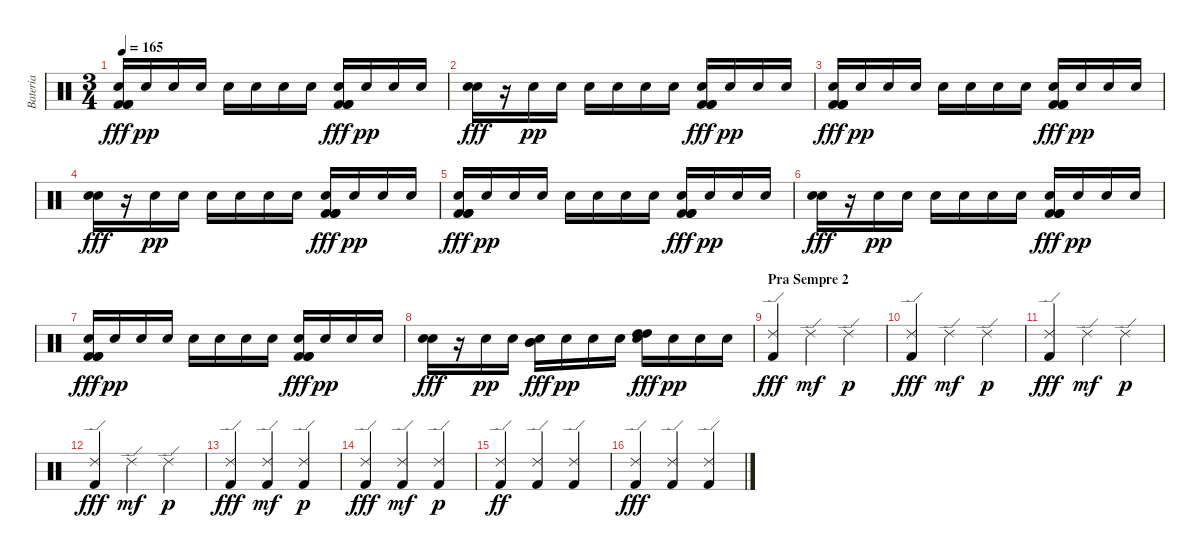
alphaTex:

\track ("Bateria" "Bateria") {instrument percussion}
\staff {score}
\articulation defaults
\ts (3 4)
\tempo 165
\clef neutral
\ks c
("Electric Snare (hit)" "Kick (hit) 2" "Kick (hit) 2" "Kick (hit) 2").16{dy fff} "Electric Snare (hit)".16{dy pp} "Electric Snare (hit)".16 "Electric Snare (hit)".16 "Electric Snare (hit)".16 "Electric Snare (hit)".16 "Electric Snare (hit)".16 "Electric Snare (hit)".16 ("Electric Snare (hit)" "Kick (hit) 2" "Kick (hit) 2" "Kick (hit) 2").16{dy fff} "Electric Snare (hit)".16{dy pp} "Electric Snare (hit)".16 "Electric Snare (hit)".16 |
("Electric Snare (hit)" "Electric Snare (hit)").16{dy fff} r.16 "Electric Snare (hit)".16{dy pp} "Electric Snare (hit)".16 "Electric Snare (hit)".16 "Electric Snare (hit)".16 "Electric Snare (hit)".16 "Electric Snare (hit)".16 ("Electric Snare (hit)" "Kick (hit) 2" "Kick (hit) 2" "Kick (hit) 2").16{dy fff} "Electric Snare (hit)".16{dy pp} "Electric Snare (hit)".16 "Electric Snare (hit)".16 |
("Electric Snare (hit)" "Kick (hit) 2" "Kick (hit) 2" "Kick (hit) 2").16{dy fff} "Electric Snare (hit)".16{dy pp} "Electric Snare (hit)".16 "Electric Snare (hit)".16 "Electric Snare (hit)".16 "Electric Snare (hit)".16 "Electric Snare (hit)".16 "Electric Snare (hit)".16 ("Electric Snare (hit)" "Kick (hit) 2" "Kick (hit) 2" "Kick (hit) 2").16{dy fff} "Electric Snare (hit)".16{dy pp} "Electric Snare (hit)".16 "Electric Snare (hit)".16 |
("Electric Snare (hit)" "Electric Snare (hit)").16{dy fff} r.16 "Electric Snare (hit)".16{dy pp} "Electric Snare (hit)".16 "Electric Snare (hit)".16 "Electric Snare (hit)".16 "Electric Snare (hit)".16 "Electric Snare (hit)".16 ("Electric Snare (hit)" "Kick (hit) 2" "Kick (hit) 2" "Kick (hit) 2").16{dy fff} "Electric Snare (hit)".16{dy pp} "Electric Snare (hit)".16 "Electric Snare (hit)".16 |
("Electric Snare (hit)" "Kick (hit) 2" "Kick (hit) 2" "Kick (hit) 2").16{dy fff} "Electric Snare (hit)".16{dy pp} "Electric Snare (hit)".16 "Electric Snare (hit)".16 "Electric Snare (hit)".16 "Electric Snare (hit)".16 "Electric Snare (hit)".16 "Electric Snare (hit)".16 ("Electric Snare (hit)" "Kick (hit) 2" "Kick (hit) 2" "Kick (hit) 2").16{dy fff} "Electric Snare (hit)".16{dy pp} "Electric Snare (hit)".16 "Electric Snare (hit)".16 |
("Electric Snare (hit)" "Electric Snare (hit)").16{dy fff} r.16 "Electric Snare (hit)".16{dy pp} "Electric Snare (hit)".16 "Electric Snare (hit)".16 "Electric Snare (hit)".16 "Electric Snare (hit)".16 "Electric Snare (hit)".16 ("Electric Snare (hit)" "Kick (hit) 2" "Kick (hit) 2" "Kick (hit) 2").16{dy fff} "Electric Snare (hit)".16{dy pp} "Electric Snare (hit)".16 "Electric Snare (hit)".16 |
("Electric Snare (hit)" "Kick (hit) 2" "Kick (hit) 2" "Kick (hit) 2").16{dy fff} "Electric Snare (hit)".16{dy pp} "Electric Snare (hit)".16 "Electric Snare (hit)".16 "Electric Snare (hit)".16 "Electric Snare (hit)".16 "Electric Snare (hit)".16 "Electric Snare (hit)".16 ("Electric Snare (hit)" "Kick (hit) 2" "Kick (hit) 2" "Kick (hit) 2").16{dy fff} "Electric Snare (hit)".16{dy pp} "Electric Snare (hit)".16 "Electric Snare (hit)".16 |
("Electric Snare (hit)" "Electric Snare (hit)").16{dy fff} r.16 "Electric Snare (hit)".16{dy pp} "Electric Snare (hit)".16 ("Electric Snare (hit)" "Mid Tom (hit)" "Mid Tom (hit)").16{dy fff} "Electric Snare (hit)".16{dy pp} "Electric Snare (hit)".16 "Electric Snare (hit)".16 ("Electric Snare (hit)" "High Tom (hit)" "High Tom (hit)").16{dy fff} "Electric Snare (hit)".16{dy pp} "Electric Snare (hit)".16 "Electric Snare (hit)".16 |
\section ("" "Pra Sempre 2")
("Ride (edge) 2" "Kick (hit) 2").4{dy fff} "Ride (edge) 2".4{dy mf} "Ride (edge) 2".4{dy p} |
("Ride (edge) 2" "Kick (hit) 2").4{dy fff} "Ride (edge) 2".4{dy mf} "Ride (edge) 2".4{dy p} |
("Ride (edge) 2" "Kick (hit) 2").4{dy fff} "Ride (edge) 2".4{dy mf} "Ride (edge) 2".4{dy p} |
("Ride (edge) 2" "Kick (hit) 2").4{dy fff} "Ride (edge) 2".4{dy mf} "Ride (edge) 2".4{dy p} |
("Ride (edge) 2" "Kick (hit) 2").4{dy fff} ("Ride (edge) 2" "Kick (hit) 2").4{dy mf} ("Ride (edge) 2" "Kick (hit) 2").4{dy p} |
("Ride (edge) 2" "Kick (hit) 2").4{dy fff} ("Ride (edge) 2" "Kick (hit) 2").4{dy mf} ("Ride (edge) 2" "Kick (hit) 2").4{dy p} |
("Ride (edge) 2" "Kick (hit) 2").4{dy ff} ("Ride (edge) 2" "Kick (hit) 2").4 ("Ride (edge) 2" "Kick (hit) 2").4 |
("Ride (edge) 2" "Kick (hit) 2").4{dy fff} ("Ride (edge) 2" "Kick (hit) 2").4 ("Ride (edge) 2" "Kick (hit) 2").4
